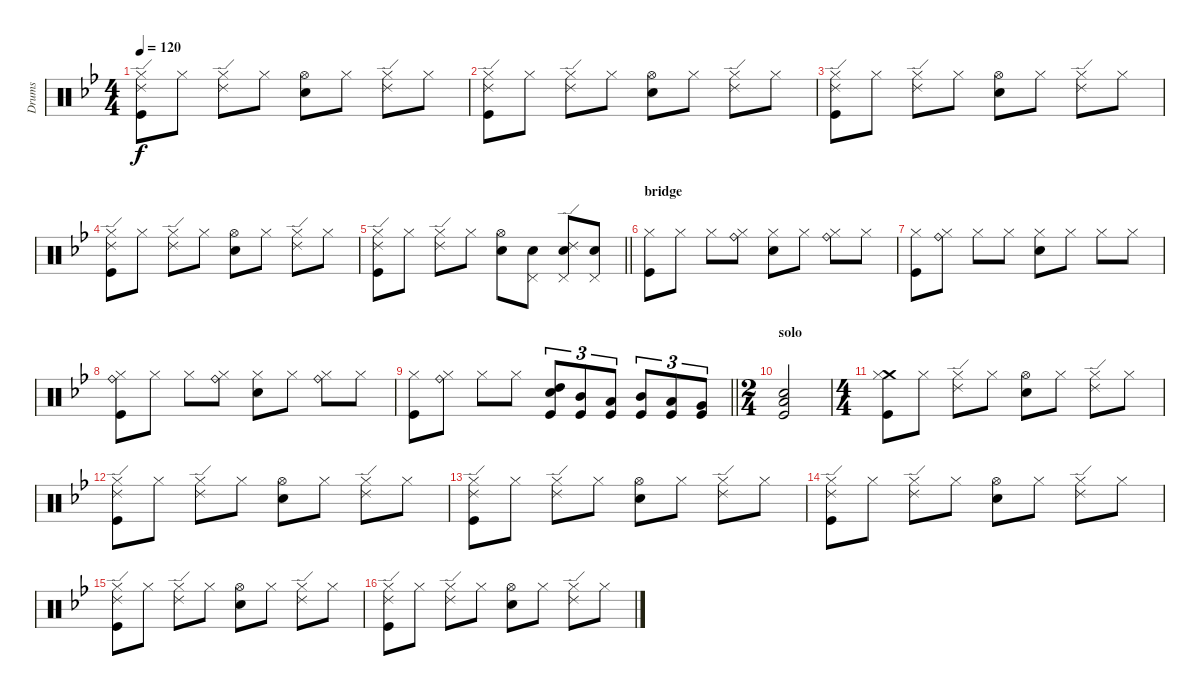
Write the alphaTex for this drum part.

\track ("Drums" "Drums") {instrument percussion}
\staff {score}
\articulation defaults
\ts (4 4)
\tempo 120
\clef neutral
\ks gminor
("Hi-Hat (closed)" "Ride (edge) 2" "Kick (hit)").8{dy f} "Hi-Hat (closed)".8 ("Hi-Hat (closed)" "Ride (edge) 2").8 "Hi-Hat (closed)".8 ("Hi-Hat (open)" "Electric Snare (hit)").8 "Hi-Hat (closed)".8 ("Hi-Hat (closed)" "Ride (edge) 2").8 "Hi-Hat (closed)".8 |
("Hi-Hat (closed)" "Ride (edge) 2" "Kick (hit)").8 "Hi-Hat (closed)".8 ("Hi-Hat (closed)" "Ride (edge) 2").8 "Hi-Hat (closed)".8 ("Hi-Hat (open)" "Electric Snare (hit)").8 "Hi-Hat (closed)".8 ("Hi-Hat (closed)" "Ride (edge) 2").8 "Hi-Hat (closed)".8 |
("Hi-Hat (closed)" "Ride (edge) 2" "Kick (hit)").8 "Hi-Hat (closed)".8 ("Hi-Hat (closed)" "Ride (edge) 2").8 "Hi-Hat (closed)".8 ("Hi-Hat (open)" "Electric Snare (hit)").8 "Hi-Hat (closed)".8 ("Hi-Hat (closed)" "Ride (edge) 2").8 "Hi-Hat (closed)".8 |
("Hi-Hat (closed)" "Ride (edge) 2" "Kick (hit)").8 "Hi-Hat (closed)".8 ("Hi-Hat (closed)" "Ride (edge) 2").8 "Hi-Hat (closed)".8 ("Hi-Hat (open)" "Electric Snare (hit)").8 "Hi-Hat (closed)".8 ("Hi-Hat (closed)" "Ride (edge) 2").8 "Hi-Hat (closed)".8 |
\barLineRight lightlight
("Hi-Hat (closed)" "Ride (edge) 2" "Kick (hit)").8 "Hi-Hat (closed)".8 ("Hi-Hat (closed)" "Ride (edge) 2").8 "Hi-Hat (closed)".8 ("Hi-Hat (open)" "Electric Snare (hit)").8 ("Pedal Hi-Hat (hit)" "Electric Snare (hit)").8 ("Pedal Hi-Hat (hit)" "Ride (edge) 2" "Electric Snare (hit)").8 ("Pedal Hi-Hat (hit)" "Electric Snare (hit)").8 |
\section ("" "bridge")
("Hi-Hat (closed)" "Kick (hit)").8 "Hi-Hat (closed)".8 "Hi-Hat (closed)".8 ("Ride (bell)" "Hi-Hat (closed)").8 ("Hi-Hat (closed)" "Electric Snare (hit)").8 "Hi-Hat (closed)".8 ("Ride (bell)" "Hi-Hat (closed)").8 "Hi-Hat (closed)".8 |
("Hi-Hat (closed)" "Kick (hit)").8 ("Ride (bell)" "Hi-Hat (closed)").8 "Hi-Hat (closed)".8 "Hi-Hat (closed)".8 ("Hi-Hat (closed)" "Electric Snare (hit)").8 "Hi-Hat (closed)".8 "Hi-Hat (closed)".8 "Hi-Hat (closed)".8 |
("Ride (bell)" "Hi-Hat (closed)" "Kick (hit)").8 "Hi-Hat (closed)".8 "Hi-Hat (closed)".8 ("Ride (bell)" "Hi-Hat (closed)").8 ("Hi-Hat (closed)" "Electric Snare (hit)").8 "Hi-Hat (closed)".8 ("Ride (bell)" "Hi-Hat (closed)").8 "Hi-Hat (closed)".8 |
\barLineRight lightlight
("Hi-Hat (closed)" "Kick (hit)").8 ("Ride (bell)" "Hi-Hat (closed)").8 "Hi-Hat (closed)".8 "Hi-Hat (closed)".8 ("High Tom (hit)" "Electric Snare (hit)" "Kick (hit)").8{tu (3 2)} ("Mid Tom (hit)" "Kick (hit)").8{tu (3 2)} ("Low Tom (hit)" "Kick (hit)").8{tu (3 2)} ("Mid Tom (hit)" "Kick (hit)").8{tu (3 2)} ("Low Tom (hit)" "Kick (hit)").8{tu (3 2)} ("Very Low Tom (hit)" "Kick (hit)").8{tu (3 2)} |
\ts (2 4)
\section ("" "solo")
("Low Tom (hit)" "Electric Snare (hit)" "Kick (hit)").2 |
\ts (4 4)
("Crash medium (hit)" "Hi-Hat (closed)" "Kick (hit)").8 "Hi-Hat (closed)".8 ("Hi-Hat (closed)" "Ride (edge) 2").8 "Hi-Hat (closed)".8 ("Hi-Hat (open)" "Electric Snare (hit)").8 "Hi-Hat (closed)".8 ("Hi-Hat (closed)" "Ride (edge) 2").8 "Hi-Hat (closed)".8 |
("Hi-Hat (closed)" "Ride (edge) 2" "Kick (hit)").8 "Hi-Hat (closed)".8 ("Hi-Hat (closed)" "Ride (edge) 2").8 "Hi-Hat (closed)".8 ("Hi-Hat (open)" "Electric Snare (hit)").8 "Hi-Hat (closed)".8 ("Hi-Hat (closed)" "Ride (edge) 2").8 "Hi-Hat (closed)".8 |
("Hi-Hat (closed)" "Ride (edge) 2" "Kick (hit)").8 "Hi-Hat (closed)".8 ("Hi-Hat (closed)" "Ride (edge) 2").8 "Hi-Hat (closed)".8 ("Hi-Hat (open)" "Electric Snare (hit)").8 "Hi-Hat (closed)".8 ("Hi-Hat (closed)" "Ride (edge) 2").8 "Hi-Hat (closed)".8 |
("Hi-Hat (closed)" "Ride (edge) 2" "Kick (hit)").8 "Hi-Hat (closed)".8 ("Hi-Hat (closed)" "Ride (edge) 2").8 "Hi-Hat (closed)".8 ("Hi-Hat (open)" "Electric Snare (hit)").8 "Hi-Hat (closed)".8 ("Hi-Hat (closed)" "Ride (edge) 2").8 "Hi-Hat (closed)".8 |
("Hi-Hat (closed)" "Ride (edge) 2" "Kick (hit)").8 "Hi-Hat (closed)".8 ("Hi-Hat (closed)" "Ride (edge) 2").8 "Hi-Hat (closed)".8 ("Hi-Hat (open)" "Electric Snare (hit)").8 "Hi-Hat (closed)".8 ("Hi-Hat (closed)" "Ride (edge) 2").8 "Hi-Hat (closed)".8 |
("Hi-Hat (closed)" "Ride (edge) 2" "Kick (hit)").8 "Hi-Hat (closed)".8 ("Hi-Hat (closed)" "Ride (edge) 2").8 "Hi-Hat (closed)".8 ("Hi-Hat (open)" "Electric Snare (hit)").8 "Hi-Hat (closed)".8 ("Hi-Hat (closed)" "Ride (edge) 2").8 "Hi-Hat (closed)".8
